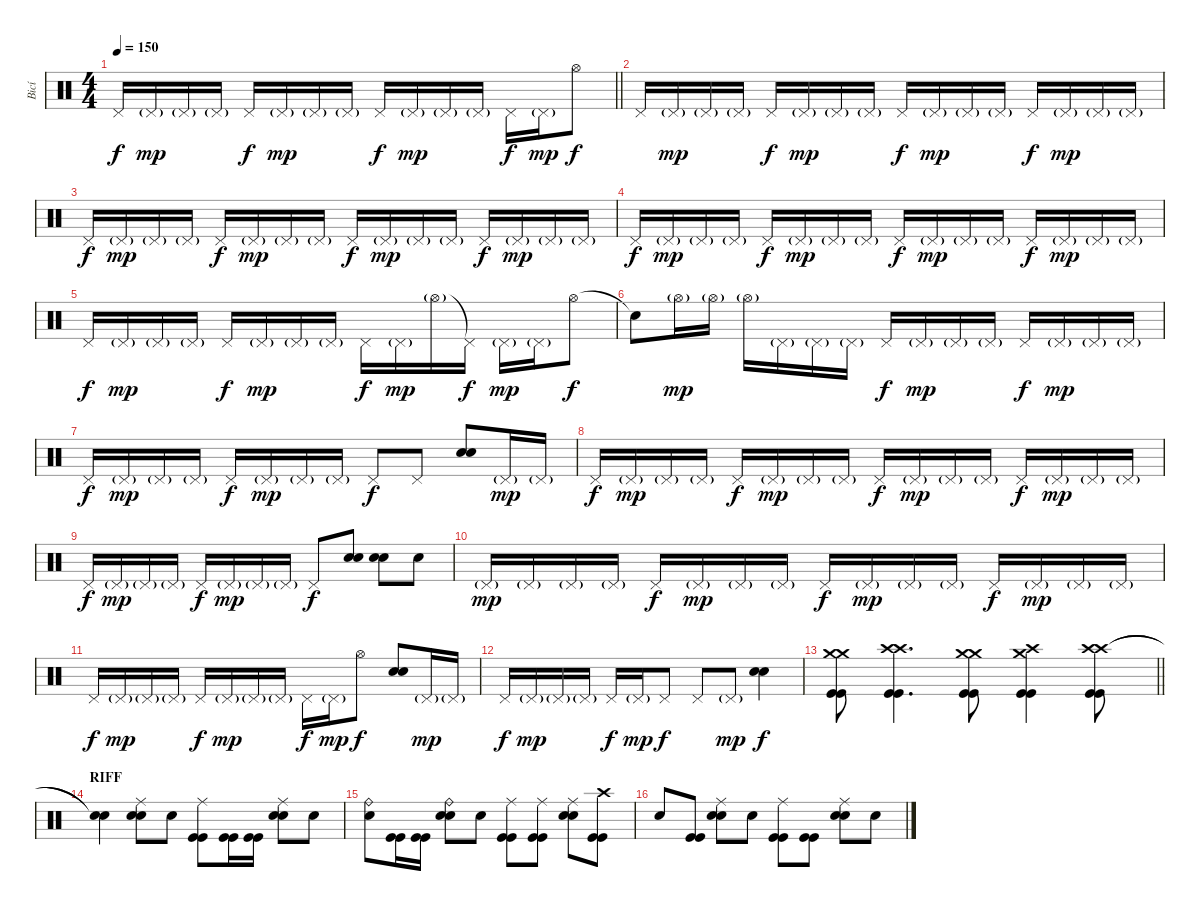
\track ("Bicí" "Bicí") {instrument percussion}
\staff {score}
\articulation defaults
\ts (4 4)
\tempo 150
\clef neutral
\barLineRight lightlight
\ks c "Pedal Hi-Hat (hit)".16{dy f} "Pedal Hi-Hat (hit)"{g}.16{dy mp} "Pedal Hi-Hat (hit)"{g}.16 "Pedal Hi-Hat (hit)"{g}.16 "Pedal Hi-Hat (hit)".16{dy f} "Pedal Hi-Hat (hit)"{g}.16{dy mp} "Pedal Hi-Hat (hit)"{g}.16 "Pedal Hi-Hat (hit)"{g}.16 "Pedal Hi-Hat (hit)".16{dy f} "Pedal Hi-Hat (hit)"{g}.16{dy mp} "Pedal Hi-Hat (hit)"{g}.16 "Pedal Hi-Hat (hit)"{g}.16 "Pedal Hi-Hat (hit)".16{dy f} "Pedal Hi-Hat (hit)"{g}.16{dy mp} "Hi-Hat (open)".8{dy f}
|
\section ("" "")
"Pedal Hi-Hat (hit)".16 "Pedal Hi-Hat (hit)"{g}.16{dy mp} "Pedal Hi-Hat (hit)"{g}.16 "Pedal Hi-Hat (hit)"{g}.16 "Pedal Hi-Hat (hit)".16{dy f} "Pedal Hi-Hat (hit)"{g}.16{dy mp} "Pedal Hi-Hat (hit)"{g}.16 "Pedal Hi-Hat (hit)"{g}.16 "Pedal Hi-Hat (hit)".16{dy f} "Pedal Hi-Hat (hit)"{g}.16{dy mp} "Pedal Hi-Hat (hit)"{g}.16 "Pedal Hi-Hat (hit)"{g}.16 "Pedal Hi-Hat (hit)".16{dy f} "Pedal Hi-Hat (hit)"{g}.16{dy mp} "Pedal Hi-Hat (hit)"{g}.16 "Pedal Hi-Hat (hit)"{g}.16 |
"Pedal Hi-Hat (hit)".16{dy f} "Pedal Hi-Hat (hit)"{g}.16{dy mp} "Pedal Hi-Hat (hit)"{g}.16 "Pedal Hi-Hat (hit)"{g}.16 "Pedal Hi-Hat (hit)".16{dy f} "Pedal Hi-Hat (hit)"{g}.16{dy mp} "Pedal Hi-Hat (hit)"{g}.16 "Pedal Hi-Hat (hit)"{g}.16 "Pedal Hi-Hat (hit)".16{dy f} "Pedal Hi-Hat (hit)"{g}.16{dy mp} "Pedal Hi-Hat (hit)"{g}.16 "Pedal Hi-Hat (hit)"{g}.16 "Pedal Hi-Hat (hit)".16{dy f} "Pedal Hi-Hat (hit)"{g}.16{dy mp} "Pedal Hi-Hat (hit)"{g}.16 "Pedal Hi-Hat (hit)"{g}.16 |
"Pedal Hi-Hat (hit)".16{dy f} "Pedal Hi-Hat (hit)"{g}.16{dy mp} "Pedal Hi-Hat (hit)"{g}.16 "Pedal Hi-Hat (hit)"{g}.16 "Pedal Hi-Hat (hit)".16{dy f} "Pedal Hi-Hat (hit)"{g}.16{dy mp} "Pedal Hi-Hat (hit)"{g}.16 "Pedal Hi-Hat (hit)"{g}.16 "Pedal Hi-Hat (hit)".16{dy f} "Pedal Hi-Hat (hit)"{g}.16{dy mp} "Pedal Hi-Hat (hit)"{g}.16 "Pedal Hi-Hat (hit)"{g}.16 "Pedal Hi-Hat (hit)".16{dy f} "Pedal Hi-Hat (hit)"{g}.16{dy mp} "Pedal Hi-Hat (hit)"{g}.16 "Pedal Hi-Hat (hit)"{g}.16 |
"Pedal Hi-Hat (hit)".16{dy f} "Pedal Hi-Hat (hit)"{g}.16{dy mp} "Pedal Hi-Hat (hit)"{g}.16 "Pedal Hi-Hat (hit)"{g}.16 "Pedal Hi-Hat (hit)".16{dy f} "Pedal Hi-Hat (hit)"{g}.16{dy mp} "Pedal Hi-Hat (hit)"{g}.16 "Pedal Hi-Hat (hit)"{g}.16 "Pedal Hi-Hat (hit)".16{dy f} "Pedal Hi-Hat (hit)"{g}.16{dy mp} "Hi-Hat (open)"{g}.16 "Pedal Hi-Hat (hit)"{t}.16{dy f} "Pedal Hi-Hat (hit)"{g}.16{dy mp} "Pedal Hi-Hat (hit)"{g}.16 "Hi-Hat (open)".8{dy f} |
"Snare (hit)"{t}.8 "Hi-Hat (open)"{g}.16{dy mp} "Hi-Hat (open)"{g}.16 "Hi-Hat (open)"{g}.16 "Pedal Hi-Hat (hit)"{g}.16 "Pedal Hi-Hat (hit)"{g}.16 "Pedal Hi-Hat (hit)"{g}.16 "Pedal Hi-Hat (hit)".16{dy f} "Pedal Hi-Hat (hit)"{g}.16{dy mp} "Pedal Hi-Hat (hit)"{g}.16 "Pedal Hi-Hat (hit)"{g}.16 "Pedal Hi-Hat (hit)".16{dy f} "Pedal Hi-Hat (hit)"{g}.16{dy mp} "Pedal Hi-Hat (hit)"{g}.16 "Pedal Hi-Hat (hit)"{g}.16 |
"Pedal Hi-Hat (hit)".16{dy f} "Pedal Hi-Hat (hit)"{g}.16{dy mp} "Pedal Hi-Hat (hit)"{g}.16 "Pedal Hi-Hat (hit)"{g}.16 "Pedal Hi-Hat (hit)".16{dy f} "Pedal Hi-Hat (hit)"{g}.16{dy mp} "Pedal Hi-Hat (hit)"{g}.16 "Pedal Hi-Hat (hit)"{g}.16 "Pedal Hi-Hat (hit)".8{dy f} "Pedal Hi-Hat (hit)".8 ("Electric Snare (hit)" "Electric Snare (hit)").8 "Pedal Hi-Hat (hit)"{g}.16{dy mp} "Pedal Hi-Hat (hit)"{g}.16 |
"Pedal Hi-Hat (hit)".16{dy f} "Pedal Hi-Hat (hit)"{g}.16{dy mp} "Pedal Hi-Hat (hit)"{g}.16 "Pedal Hi-Hat (hit)"{g}.16 "Pedal Hi-Hat (hit)".16{dy f} "Pedal Hi-Hat (hit)"{g}.16{dy mp} "Pedal Hi-Hat (hit)"{g}.16 "Pedal Hi-Hat (hit)"{g}.16 "Pedal Hi-Hat (hit)".16{dy f} "Pedal Hi-Hat (hit)"{g}.16{dy mp} "Pedal Hi-Hat (hit)"{g}.16 "Pedal Hi-Hat (hit)"{g}.16 "Pedal Hi-Hat (hit)".16{dy f} "Pedal Hi-Hat (hit)"{g}.16{dy mp} "Pedal Hi-Hat (hit)"{g}.16 "Pedal Hi-Hat (hit)"{g}.16 |
"Pedal Hi-Hat (hit)".16{dy f} "Pedal Hi-Hat (hit)"{g}.16{dy mp} "Pedal Hi-Hat (hit)"{g}.16 "Pedal Hi-Hat (hit)"{g}.16 "Pedal Hi-Hat (hit)".16{dy f} "Pedal Hi-Hat (hit)"{g}.16{dy mp} "Pedal Hi-Hat (hit)"{g}.16 "Pedal Hi-Hat (hit)"{g}.16 "Pedal Hi-Hat (hit)".8{dy f} ("Electric Snare (hit)" "Electric Snare (hit)").8 ("Electric Snare (hit)" "Electric Snare (hit)").8 "Snare (hit)".8 |
"Pedal Hi-Hat (hit)"{g}.16{dy mp} "Pedal Hi-Hat (hit)"{g}.16 "Pedal Hi-Hat (hit)"{g}.16 "Pedal Hi-Hat (hit)"{g}.16 "Pedal Hi-Hat (hit)".16{dy f} "Pedal Hi-Hat (hit)"{g}.16{dy mp} "Pedal Hi-Hat (hit)"{g}.16 "Pedal Hi-Hat (hit)"{g}.16 "Pedal Hi-Hat (hit)".16{dy f} "Pedal Hi-Hat (hit)"{g}.16{dy mp} "Pedal Hi-Hat (hit)"{g}.16 "Pedal Hi-Hat (hit)"{g}.16 "Pedal Hi-Hat (hit)".16{dy f} "Pedal Hi-Hat (hit)"{g}.16{dy mp} "Pedal Hi-Hat (hit)"{g}.16 "Pedal Hi-Hat (hit)"{g}.16 |
"Pedal Hi-Hat (hit)".16{dy f} "Pedal Hi-Hat (hit)"{g}.16{dy mp} "Pedal Hi-Hat (hit)"{g}.16 "Pedal Hi-Hat (hit)"{g}.16 "Pedal Hi-Hat (hit)".16{dy f} "Pedal Hi-Hat (hit)"{g}.16{dy mp} "Pedal Hi-Hat (hit)"{g}.16 "Pedal Hi-Hat (hit)"{g}.16 "Pedal Hi-Hat (hit)".16{dy f} "Pedal Hi-Hat (hit)"{g}.16{dy mp} "Hi-Hat (open)".8{dy f} ("Electric Snare (hit)" "Electric Snare (hit)").8 "Pedal Hi-Hat (hit)"{g}.16{dy mp} "Pedal Hi-Hat (hit)"{g}.16 |
"Pedal Hi-Hat (hit)".16{dy f} "Pedal Hi-Hat (hit)"{g}.16{dy mp} "Pedal Hi-Hat (hit)"{g}.16 "Pedal Hi-Hat (hit)"{g}.16 "Pedal Hi-Hat (hit)".16{dy f} "Pedal Hi-Hat (hit)"{g}.16{dy mp} "Pedal Hi-Hat (hit)".8{dy f} "Pedal Hi-Hat (hit)".8 "Pedal Hi-Hat (hit)"{g}.8{dy mp} ("Electric Snare (hit)" "Electric Snare (hit)").4{dy f} |
\barLineRight lightlight
("Crash medium (hit)" "Crash medium (hit)" "Kick (hit)" "Kick (hit)").8 ("Crash high (hit)" "Crash high (hit)" "Kick (hit)" "Kick (hit)").4{d} ("Crash medium (hit)" "Crash medium (hit)" "Kick (hit)" "Kick (hit)").8 ("Crash high (hit)" "Crash medium (hit)" "Kick (hit)" "Kick (hit)").4 ("Crash high (hit)" "Crash high (hit)" "Kick (hit)" "Kick (hit)").8 |
\section ("" "RIFF")
("Snare (hit)"{t} "Snare (hit)"{t}).4 ("Ride (middle)" "Electric Snare (hit)" "Electric Snare (hit)").8 "Snare (hit)".8 ("Ride (middle)" "Kick (hit)" "Kick (hit)").8 ("Kick (hit)" "Kick (hit)").16 ("Kick (hit)" "Kick (hit)").16 ("Ride (middle)" "Electric Snare (hit)" "Electric Snare (hit)").8 "Snare (hit)".8 |
("Ride (bell)" "Snare (hit)").8 ("Kick (hit)" "Kick (hit)").16 ("Kick (hit)" "Kick (hit)").16 ("Ride (bell)" "Electric Snare (hit)" "Electric Snare (hit)").8 "Snare (hit)".8 ("Ride (middle)" "Kick (hit)" "Kick (hit)").8 ("Ride (middle)" "Kick (hit)" "Kick (hit)").8 ("Ride (middle)" "Electric Snare (hit)" "Electric Snare (hit)").8 ("Crash high (hit)" "Kick (hit)" "Kick (hit)").8 |
"Snare (hit)".8 ("Kick (hit)" "Kick (hit)").8 ("Ride (middle)" "Electric Snare (hit)" "Electric Snare (hit)").8 "Snare (hit)".8 ("Ride (middle)" "Kick (hit)" "Kick (hit)").8 ("Kick (hit)" "Kick (hit)").8 ("Ride (middle)" "Electric Snare (hit)" "Electric Snare (hit)").8 "Snare (hit)".8
